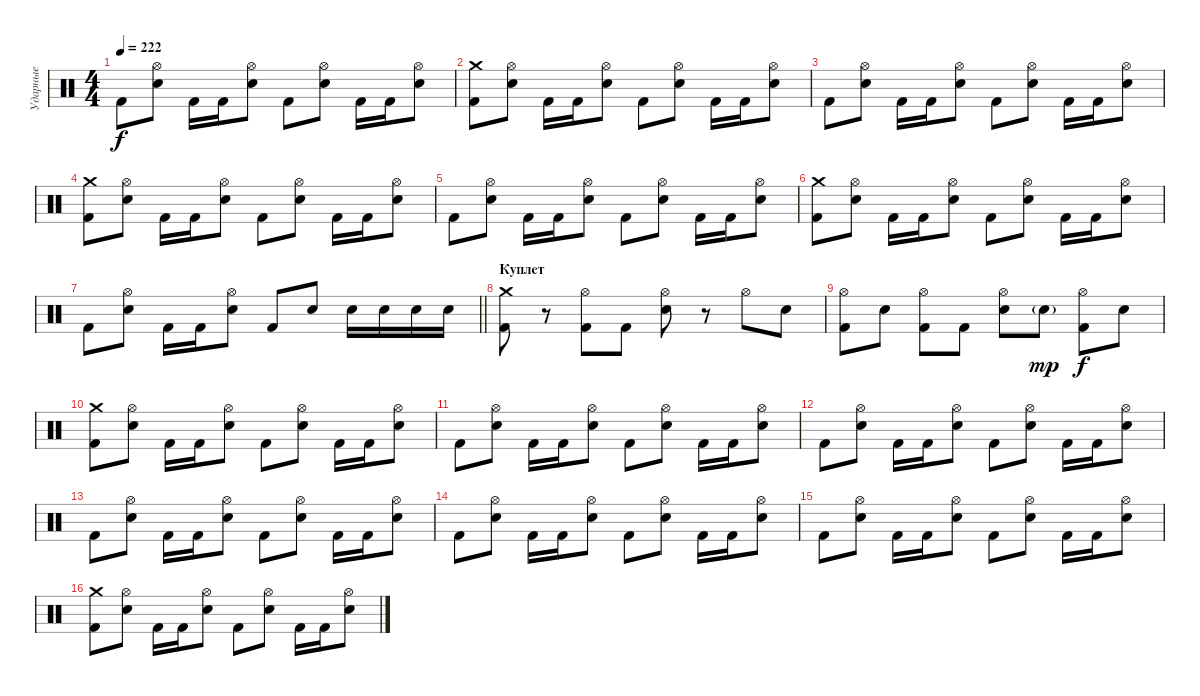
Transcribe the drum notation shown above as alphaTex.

\track ("Ударные" "Ударные") {instrument percussion}
\staff {score}
\articulation defaults
\ts (4 4)
\tempo 222
\clef neutral
\ks c "Kick (hit) 2".8{dy f}
("Electric Snare (hit)" "Hi-Hat (open)").8 "Kick (hit) 2".16 "Kick (hit) 2".16 ("Electric Snare (hit)" "Hi-Hat (open)").8 "Kick (hit) 2".8 ("Electric Snare (hit)" "Hi-Hat (open)").8 "Kick (hit) 2".16 "Kick (hit) 2".16 ("Electric Snare (hit)" "Hi-Hat (open)").8 |
("Kick (hit) 2" "Crash medium (hit)").8 ("Electric Snare (hit)" "Hi-Hat (open)").8 "Kick (hit) 2".16 "Kick (hit) 2".16 ("Electric Snare (hit)" "Hi-Hat (open)").8 "Kick (hit) 2".8 ("Electric Snare (hit)" "Hi-Hat (open)").8 "Kick (hit) 2".16 "Kick (hit) 2".16 ("Electric Snare (hit)" "Hi-Hat (open)").8 |
"Kick (hit) 2".8 ("Electric Snare (hit)" "Hi-Hat (open)").8 "Kick (hit) 2".16 "Kick (hit) 2".16 ("Electric Snare (hit)" "Hi-Hat (open)").8 "Kick (hit) 2".8 ("Electric Snare (hit)" "Hi-Hat (open)").8 "Kick (hit) 2".16 "Kick (hit) 2".16 ("Electric Snare (hit)" "Hi-Hat (open)").8 |
("Kick (hit) 2" "Crash medium (hit)").8 ("Electric Snare (hit)" "Hi-Hat (open)").8 "Kick (hit) 2".16 "Kick (hit) 2".16 ("Electric Snare (hit)" "Hi-Hat (open)").8 "Kick (hit) 2".8 ("Electric Snare (hit)" "Hi-Hat (open)").8 "Kick (hit) 2".16 "Kick (hit) 2".16 ("Electric Snare (hit)" "Hi-Hat (open)").8 |
"Kick (hit) 2".8 ("Electric Snare (hit)" "Hi-Hat (open)").8 "Kick (hit) 2".16 "Kick (hit) 2".16 ("Electric Snare (hit)" "Hi-Hat (open)").8 "Kick (hit) 2".8 ("Electric Snare (hit)" "Hi-Hat (open)").8 "Kick (hit) 2".16 "Kick (hit) 2".16 ("Electric Snare (hit)" "Hi-Hat (open)").8 |
("Kick (hit) 2" "Crash medium (hit)").8 ("Electric Snare (hit)" "Hi-Hat (open)").8 "Kick (hit) 2".16 "Kick (hit) 2".16 ("Electric Snare (hit)" "Hi-Hat (open)").8 "Kick (hit) 2".8 ("Electric Snare (hit)" "Hi-Hat (open)").8 "Kick (hit) 2".16 "Kick (hit) 2".16 ("Electric Snare (hit)" "Hi-Hat (open)").8 |
\barLineRight lightlight "Kick (hit) 2".8
("Electric Snare (hit)" "Hi-Hat (open)").8 "Kick (hit) 2".16 "Kick (hit) 2".16 ("Electric Snare (hit)" "Hi-Hat (open)").8 "Kick (hit) 2".8 "Electric Snare (hit)".8 "Electric Snare (hit)".16 "Electric Snare (hit)".16 "Electric Snare (hit)".16 "Electric Snare (hit)".16 |
\section ("" "Куплет")
("Kick (hit) 2" "Crash medium (hit)").8 r.8 ("Kick (hit) 2" "Hi-Hat (open)").8 "Kick (hit) 2".8 ("Electric Snare (hit)" "Hi-Hat (open)").8 r.8 "Hi-Hat (open)".8 "Electric Snare (hit)".8 |
("Kick (hit) 2" "Hi-Hat (open)").8 "Electric Snare (hit)".8 ("Kick (hit) 2" "Hi-Hat (open)").8 "Kick (hit) 2".8 ("Electric Snare (hit)" "Hi-Hat (open)").8 "Electric Snare (hit)"{g}.8{dy mp} ("Kick (hit) 2" "Hi-Hat (open)").8{dy f} "Electric Snare (hit)".8 |
("Kick (hit) 2" "Crash medium (hit)").8 ("Electric Snare (hit)" "Hi-Hat (open)").8 "Kick (hit) 2".16 "Kick (hit) 2".16 ("Electric Snare (hit)" "Hi-Hat (open)").8 "Kick (hit) 2".8 ("Electric Snare (hit)" "Hi-Hat (open)").8 "Kick (hit) 2".16 "Kick (hit) 2".16 ("Electric Snare (hit)" "Hi-Hat (open)").8 |
"Kick (hit) 2".8 ("Electric Snare (hit)" "Hi-Hat (open)").8 "Kick (hit) 2".16 "Kick (hit) 2".16 ("Electric Snare (hit)" "Hi-Hat (open)").8 "Kick (hit) 2".8 ("Electric Snare (hit)" "Hi-Hat (open)").8 "Kick (hit) 2".16 "Kick (hit) 2".16 ("Electric Snare (hit)" "Hi-Hat (open)").8 |
"Kick (hit) 2".8 ("Electric Snare (hit)" "Hi-Hat (open)").8 "Kick (hit) 2".16 "Kick (hit) 2".16 ("Electric Snare (hit)" "Hi-Hat (open)").8 "Kick (hit) 2".8 ("Electric Snare (hit)" "Hi-Hat (open)").8 "Kick (hit) 2".16 "Kick (hit) 2".16 ("Electric Snare (hit)" "Hi-Hat (open)").8 |
"Kick (hit) 2".8 ("Electric Snare (hit)" "Hi-Hat (open)").8 "Kick (hit) 2".16 "Kick (hit) 2".16 ("Electric Snare (hit)" "Hi-Hat (open)").8 "Kick (hit) 2".8 ("Electric Snare (hit)" "Hi-Hat (open)").8 "Kick (hit) 2".16 "Kick (hit) 2".16 ("Electric Snare (hit)" "Hi-Hat (open)").8 |
"Kick (hit) 2".8 ("Electric Snare (hit)" "Hi-Hat (open)").8 "Kick (hit) 2".16 "Kick (hit) 2".16 ("Electric Snare (hit)" "Hi-Hat (open)").8 "Kick (hit) 2".8 ("Electric Snare (hit)" "Hi-Hat (open)").8 "Kick (hit) 2".16 "Kick (hit) 2".16 ("Electric Snare (hit)" "Hi-Hat (open)").8 |
"Kick (hit) 2".8 ("Electric Snare (hit)" "Hi-Hat (open)").8 "Kick (hit) 2".16 "Kick (hit) 2".16 ("Electric Snare (hit)" "Hi-Hat (open)").8 "Kick (hit) 2".8 ("Electric Snare (hit)" "Hi-Hat (open)").8 "Kick (hit) 2".16 "Kick (hit) 2".16 ("Electric Snare (hit)" "Hi-Hat (open)").8 |
("Kick (hit) 2" "Crash medium (hit)").8 ("Electric Snare (hit)" "Hi-Hat (open)").8 "Kick (hit) 2".16 "Kick (hit) 2".16 ("Electric Snare (hit)" "Hi-Hat (open)").8 "Kick (hit) 2".8 ("Electric Snare (hit)" "Hi-Hat (open)").8 "Kick (hit) 2".16 "Kick (hit) 2".16 ("Electric Snare (hit)" "Hi-Hat (open)").8
